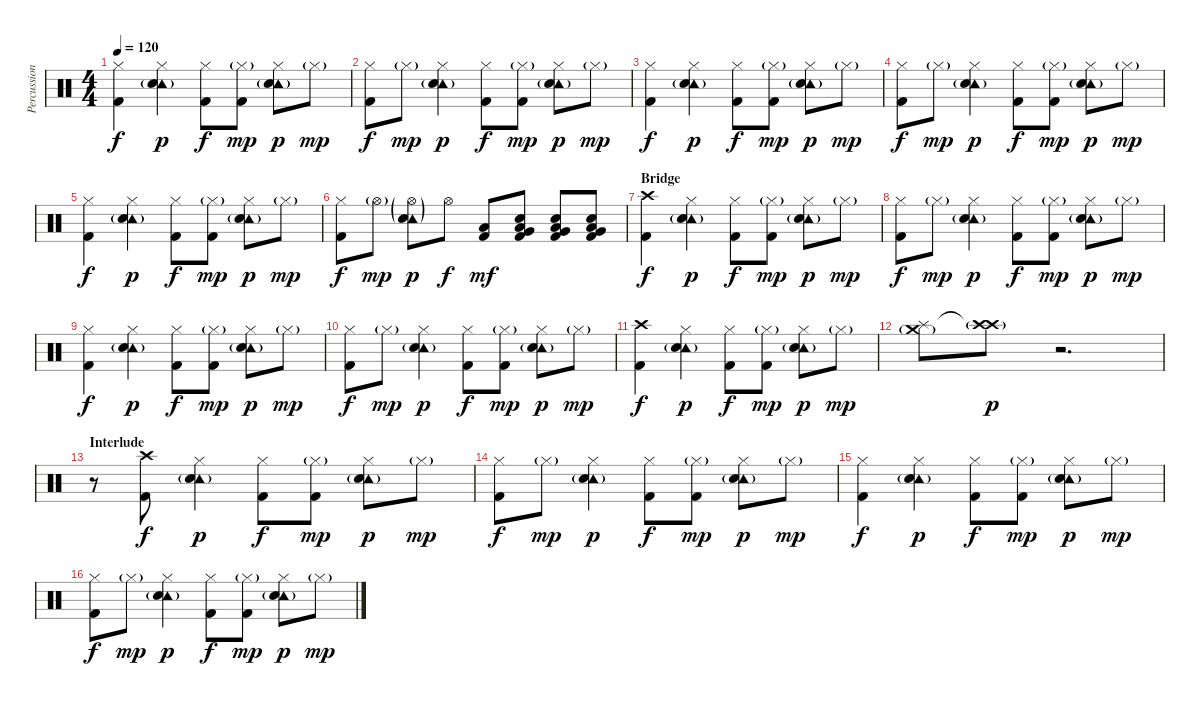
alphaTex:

\track ("Percussion     E" "Percussion") {instrument percussion}
\staff {score}
\articulation defaults
\ts (4 4)
\tempo 120
\clef neutral
\ks c
("Hi-Hat (closed)" "Kick (hit) 2").4{dy f} ("Hi-Hat (closed)" "Tambourine (hit)"{g} "Electric Snare (hit)").4{dy p} ("Hi-Hat (closed)" "Kick (hit) 2").8{dy f} ("Hi-Hat (closed)"{g} "Kick (hit) 2").8{dy mp} ("Hi-Hat (closed)" "Tambourine (hit)"{g} "Electric Snare (hit)").8{dy p} "Hi-Hat (closed)"{g}.8{dy mp} |
("Hi-Hat (closed)" "Kick (hit) 2").8{dy f} "Hi-Hat (closed)"{g}.8{dy mp} ("Hi-Hat (closed)" "Tambourine (hit)"{g} "Electric Snare (hit)").4{dy p} ("Hi-Hat (closed)" "Kick (hit) 2").8{dy f} ("Hi-Hat (closed)"{g} "Kick (hit) 2").8{dy mp} ("Hi-Hat (closed)" "Tambourine (hit)"{g} "Electric Snare (hit)").8{dy p} "Hi-Hat (closed)"{g}.8{dy mp} |
("Hi-Hat (closed)" "Kick (hit) 2").4{dy f} ("Hi-Hat (closed)" "Tambourine (hit)"{g} "Electric Snare (hit)").4{dy p} ("Hi-Hat (closed)" "Kick (hit) 2").8{dy f} ("Hi-Hat (closed)"{g} "Kick (hit) 2").8{dy mp} ("Hi-Hat (closed)" "Tambourine (hit)"{g} "Electric Snare (hit)").8{dy p} "Hi-Hat (closed)"{g}.8{dy mp} |
("Hi-Hat (closed)" "Kick (hit) 2").8{dy f} "Hi-Hat (closed)"{g}.8{dy mp} ("Hi-Hat (closed)" "Tambourine (hit)"{g} "Electric Snare (hit)").4{dy p} ("Hi-Hat (closed)" "Kick (hit) 2").8{dy f} ("Hi-Hat (closed)"{g} "Kick (hit) 2").8{dy mp} ("Hi-Hat (closed)" "Tambourine (hit)"{g} "Electric Snare (hit)").8{dy p} "Hi-Hat (closed)"{g}.8{dy mp} |
("Hi-Hat (closed)" "Kick (hit) 2").4{dy f} ("Hi-Hat (closed)" "Tambourine (hit)"{g} "Electric Snare (hit)").4{dy p} ("Hi-Hat (closed)" "Kick (hit) 2").8{dy f} ("Hi-Hat (closed)"{g} "Kick (hit) 2").8{dy mp} ("Hi-Hat (closed)" "Tambourine (hit)"{g} "Electric Snare (hit)").8{dy p} "Hi-Hat (closed)"{g}.8{dy mp} |
("Hi-Hat (closed)" "Kick (hit) 2").8{dy f} "Hi-Hat (open)"{g}.8{dy mp} ("Hi-Hat (open)"{g} "Tambourine (hit)"{g} "Electric Snare (hit)").8{dy p} "Hi-Hat (open)".8{dy f} ("Low Floor Tom (hit)" "Kick (hit) 2").8{dy mf} ("Electric Snare (hit)" "Very Low Tom (hit)" "Low Floor Tom (hit)" "Kick (hit) 2").8 ("Electric Snare (hit)" "Very Low Tom (hit)" "Low Floor Tom (hit)" "Kick (hit) 2").8 ("Electric Snare (hit)" "Very Low Tom (hit)" "Low Floor Tom (hit)" "Kick (hit) 2").8 |
\section ("" "Bridge")
("Crash high (hit)" "Kick (hit) 2").4{dy f} ("Hi-Hat (closed)" "Tambourine (hit)"{g} "Electric Snare (hit)").4{dy p} ("Hi-Hat (closed)" "Kick (hit) 2").8{dy f} ("Hi-Hat (closed)"{g} "Kick (hit) 2").8{dy mp} ("Hi-Hat (closed)" "Tambourine (hit)"{g} "Electric Snare (hit)").8{dy p} "Hi-Hat (closed)"{g}.8{dy mp} |
("Hi-Hat (closed)" "Kick (hit) 2").8{dy f} "Hi-Hat (closed)"{g}.8{dy mp} ("Hi-Hat (closed)" "Tambourine (hit)"{g} "Electric Snare (hit)").4{dy p} ("Hi-Hat (closed)" "Kick (hit) 2").8{dy f} ("Hi-Hat (closed)"{g} "Kick (hit) 2").8{dy mp} ("Hi-Hat (closed)" "Tambourine (hit)"{g} "Electric Snare (hit)").8{dy p} "Hi-Hat (closed)"{g}.8{dy mp} |
("Hi-Hat (closed)" "Kick (hit) 2").4{dy f} ("Hi-Hat (closed)" "Tambourine (hit)"{g} "Electric Snare (hit)").4{dy p} ("Hi-Hat (closed)" "Kick (hit) 2").8{dy f} ("Hi-Hat (closed)"{g} "Kick (hit) 2").8{dy mp} ("Hi-Hat (closed)" "Tambourine (hit)"{g} "Electric Snare (hit)").8{dy p} "Hi-Hat (closed)"{g}.8{dy mp} |
("Hi-Hat (closed)" "Kick (hit) 2").8{dy f} "Hi-Hat (closed)"{g}.8{dy mp} ("Hi-Hat (closed)" "Tambourine (hit)"{g} "Electric Snare (hit)").4{dy p} ("Hi-Hat (closed)" "Kick (hit) 2").8{dy f} ("Hi-Hat (closed)"{g} "Kick (hit) 2").8{dy mp} ("Hi-Hat (closed)" "Tambourine (hit)"{g} "Electric Snare (hit)").8{dy p} "Hi-Hat (closed)"{g}.8{dy mp} |
("Crash high (hit)" "Kick (hit) 2").4{dy f} ("Hi-Hat (closed)" "Tambourine (hit)"{g} "Electric Snare (hit)").4{dy p} ("Hi-Hat (closed)" "Kick (hit) 2").8{dy f} ("Hi-Hat (closed)"{g} "Kick (hit) 2").8{dy mp} ("Hi-Hat (closed)" "Tambourine (hit)"{g} "Electric Snare (hit)").8{dy p} "Hi-Hat (closed)"{g}.8{dy mp} |
("Splash (hit)" "Crash medium (hit)"{g}).8 ("Crash high (hit)"{t} "Crash high (hit)"{g}).8{dy p} r.2{d} |
\section ("" "Interlude")
r.8 ("Crash high (hit)" "Kick (hit) 2").8{dy f} ("Hi-Hat (closed)" "Tambourine (hit)"{g} "Electric Snare (hit)").4{dy p} ("Hi-Hat (closed)" "Kick (hit) 2").8{dy f} ("Hi-Hat (closed)"{g} "Kick (hit) 2").8{dy mp} ("Hi-Hat (closed)" "Tambourine (hit)"{g} "Electric Snare (hit)").8{dy p} "Hi-Hat (closed)"{g}.8{dy mp} |
("Hi-Hat (closed)" "Kick (hit) 2").8{dy f} "Hi-Hat (closed)"{g}.8{dy mp} ("Hi-Hat (closed)" "Tambourine (hit)"{g} "Electric Snare (hit)").4{dy p} ("Hi-Hat (closed)" "Kick (hit) 2").8{dy f} ("Hi-Hat (closed)"{g} "Kick (hit) 2").8{dy mp} ("Hi-Hat (closed)" "Tambourine (hit)"{g} "Electric Snare (hit)").8{dy p} "Hi-Hat (closed)"{g}.8{dy mp} |
("Hi-Hat (closed)" "Kick (hit) 2").4{dy f} ("Hi-Hat (closed)" "Tambourine (hit)"{g} "Electric Snare (hit)").4{dy p} ("Hi-Hat (closed)" "Kick (hit) 2").8{dy f} ("Hi-Hat (closed)"{g} "Kick (hit) 2").8{dy mp} ("Hi-Hat (closed)" "Tambourine (hit)"{g} "Electric Snare (hit)").8{dy p} "Hi-Hat (closed)"{g}.8{dy mp} |
("Hi-Hat (closed)" "Kick (hit) 2").8{dy f} "Hi-Hat (closed)"{g}.8{dy mp} ("Hi-Hat (closed)" "Tambourine (hit)"{g} "Electric Snare (hit)").4{dy p} ("Hi-Hat (closed)" "Kick (hit) 2").8{dy f} ("Hi-Hat (closed)"{g} "Kick (hit) 2").8{dy mp} ("Hi-Hat (closed)" "Tambourine (hit)"{g} "Electric Snare (hit)").8{dy p} "Hi-Hat (closed)"{g}.8{dy mp}
